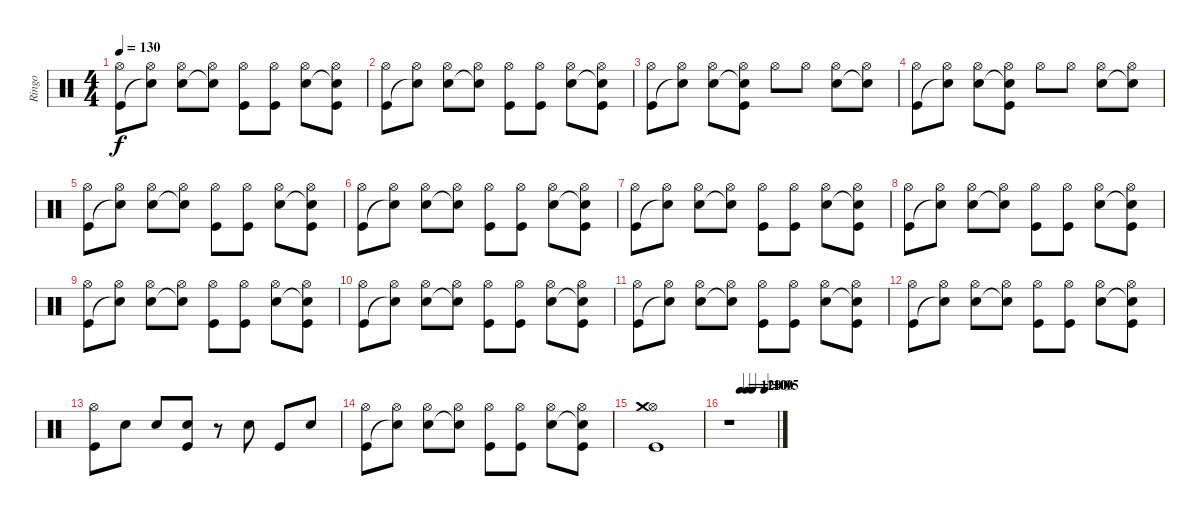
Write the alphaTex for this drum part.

\track ("Ringo" "Ringo") {instrument percussion}
\staff {score}
\articulation defaults
\ts (4 4)
\tempo 130
\clef neutral
\ks c
("Hi-Hat (open)" "Kick (hit)").8{dy f} ("Hi-Hat (open)" "Snare (hit)"{t}).8 ("Hi-Hat (open)" "Snare (hit) 2").8 ("Hi-Hat (open)" "Snare (hit)"{t}).8 ("Hi-Hat (open)" "Kick (hit)").8 ("Hi-Hat (open)" "Kick (hit)").8 ("Hi-Hat (open)" "Snare (hit) 2").8 ("Hi-Hat (open)" "Snare (hit)"{t} "Kick (hit)").8 |
("Hi-Hat (open)" "Kick (hit)").8 ("Hi-Hat (open)" "Snare (hit)"{t}).8 ("Hi-Hat (open)" "Snare (hit) 2").8 ("Hi-Hat (open)" "Snare (hit)"{t}).8 ("Hi-Hat (open)" "Kick (hit)").8 ("Hi-Hat (open)" "Kick (hit)").8 ("Hi-Hat (open)" "Snare (hit) 2").8 ("Hi-Hat (open)" "Snare (hit)"{t} "Kick (hit)").8 |
("Hi-Hat (open)" "Kick (hit)").8 ("Hi-Hat (open)" "Snare (hit)"{t}).8 ("Hi-Hat (open)" "Snare (hit) 2").8 ("Hi-Hat (open)" "Snare (hit)"{t} "Kick (hit)").8 "Hi-Hat (open)".8 "Hi-Hat (open)".8 ("Hi-Hat (open)" "Snare (hit) 2").8 ("Hi-Hat (open)" "Snare (hit)"{t}).8 |
("Hi-Hat (open)" "Kick (hit)").8 ("Hi-Hat (open)" "Snare (hit)"{t}).8 ("Hi-Hat (open)" "Snare (hit) 2").8 ("Hi-Hat (open)" "Snare (hit)"{t} "Kick (hit)").8 "Hi-Hat (open)".8 "Hi-Hat (open)".8 ("Hi-Hat (open)" "Snare (hit) 2").8 ("Hi-Hat (open)" "Snare (hit)"{t}).8 |
("Hi-Hat (open)" "Kick (hit)").8 ("Hi-Hat (open)" "Snare (hit)"{t}).8 ("Hi-Hat (open)" "Snare (hit) 2").8 ("Hi-Hat (open)" "Snare (hit)"{t}).8 ("Hi-Hat (open)" "Kick (hit)").8 ("Hi-Hat (open)" "Kick (hit)").8 ("Hi-Hat (open)" "Snare (hit) 2").8 ("Hi-Hat (open)" "Snare (hit)"{t} "Kick (hit)").8 |
("Hi-Hat (open)" "Kick (hit)").8 ("Hi-Hat (open)" "Snare (hit)"{t}).8 ("Hi-Hat (open)" "Snare (hit) 2").8 ("Hi-Hat (open)" "Snare (hit)"{t}).8 ("Hi-Hat (open)" "Kick (hit)").8 ("Hi-Hat (open)" "Kick (hit)").8 ("Hi-Hat (open)" "Snare (hit) 2").8 ("Hi-Hat (open)" "Snare (hit)"{t} "Kick (hit)").8 |
("Hi-Hat (open)" "Kick (hit)").8 ("Hi-Hat (open)" "Snare (hit)"{t}).8 ("Hi-Hat (open)" "Snare (hit) 2").8 ("Hi-Hat (open)" "Snare (hit)"{t}).8 ("Hi-Hat (open)" "Kick (hit)").8 ("Hi-Hat (open)" "Kick (hit)").8 ("Hi-Hat (open)" "Snare (hit) 2").8 ("Hi-Hat (open)" "Snare (hit)"{t} "Kick (hit)").8 |
("Hi-Hat (open)" "Kick (hit)").8 ("Hi-Hat (open)" "Snare (hit)"{t}).8 ("Hi-Hat (open)" "Snare (hit) 2").8 ("Hi-Hat (open)" "Snare (hit)"{t}).8 ("Hi-Hat (open)" "Kick (hit)").8 ("Hi-Hat (open)" "Kick (hit)").8 ("Hi-Hat (open)" "Snare (hit) 2").8 ("Hi-Hat (open)" "Snare (hit)"{t} "Kick (hit)").8 |
("Hi-Hat (open)" "Kick (hit)").8 ("Hi-Hat (open)" "Snare (hit)"{t}).8 ("Hi-Hat (open)" "Snare (hit) 2").8 ("Hi-Hat (open)" "Snare (hit)"{t}).8 ("Hi-Hat (open)" "Kick (hit)").8 ("Hi-Hat (open)" "Kick (hit)").8 ("Hi-Hat (open)" "Snare (hit) 2").8 ("Hi-Hat (open)" "Snare (hit)"{t} "Kick (hit)").8 |
("Hi-Hat (open)" "Kick (hit)").8 ("Hi-Hat (open)" "Snare (hit)"{t}).8 ("Hi-Hat (open)" "Snare (hit) 2").8 ("Hi-Hat (open)" "Snare (hit)"{t}).8 ("Hi-Hat (open)" "Kick (hit)").8 ("Hi-Hat (open)" "Kick (hit)").8 ("Hi-Hat (open)" "Snare (hit) 2").8 ("Hi-Hat (open)" "Snare (hit)"{t} "Kick (hit)").8 |
("Hi-Hat (open)" "Kick (hit)").8 ("Hi-Hat (open)" "Snare (hit)"{t}).8 ("Hi-Hat (open)" "Snare (hit) 2").8 ("Hi-Hat (open)" "Snare (hit)"{t}).8 ("Hi-Hat (open)" "Kick (hit)").8 ("Hi-Hat (open)" "Kick (hit)").8 ("Hi-Hat (open)" "Snare (hit) 2").8 ("Hi-Hat (open)" "Snare (hit)"{t} "Kick (hit)").8 |
("Hi-Hat (open)" "Kick (hit)").8 ("Hi-Hat (open)" "Snare (hit)"{t}).8 ("Hi-Hat (open)" "Snare (hit) 2").8 ("Hi-Hat (open)" "Snare (hit)"{t}).8 ("Hi-Hat (open)" "Kick (hit)").8 ("Hi-Hat (open)" "Kick (hit)").8 ("Hi-Hat (open)" "Snare (hit) 2").8 ("Hi-Hat (open)" "Snare (hit)"{t} "Kick (hit)").8 |
("Hi-Hat (open)" "Kick (hit)").8 "Snare (hit) 2".8 "Snare (hit) 2".8 ("Snare (hit) 2" "Kick (hit)").8 r.8 "Snare (hit) 2".8 "Kick (hit)".8 "Snare (hit) 2".8 |
("Hi-Hat (open)" "Kick (hit)").8 ("Hi-Hat (open)" "Snare (hit)"{t}).8 ("Hi-Hat (open)" "Snare (hit) 2").8 ("Hi-Hat (open)" "Snare (hit)"{t}).8 ("Hi-Hat (open)" "Kick (hit)").8 ("Hi-Hat (open)" "Kick (hit)").8 ("Hi-Hat (open)" "Snare (hit) 2").8 ("Hi-Hat (open)" "Snare (hit)"{t} "Kick (hit)").8 |
("Hi-Hat (open)" "Crash medium (hit)" "Kick (hit)").1 |
\tempo (120 0.25)
\tempo (110 0.375)
\tempo (100 0.5)
\tempo (95 0.75)
r.1
